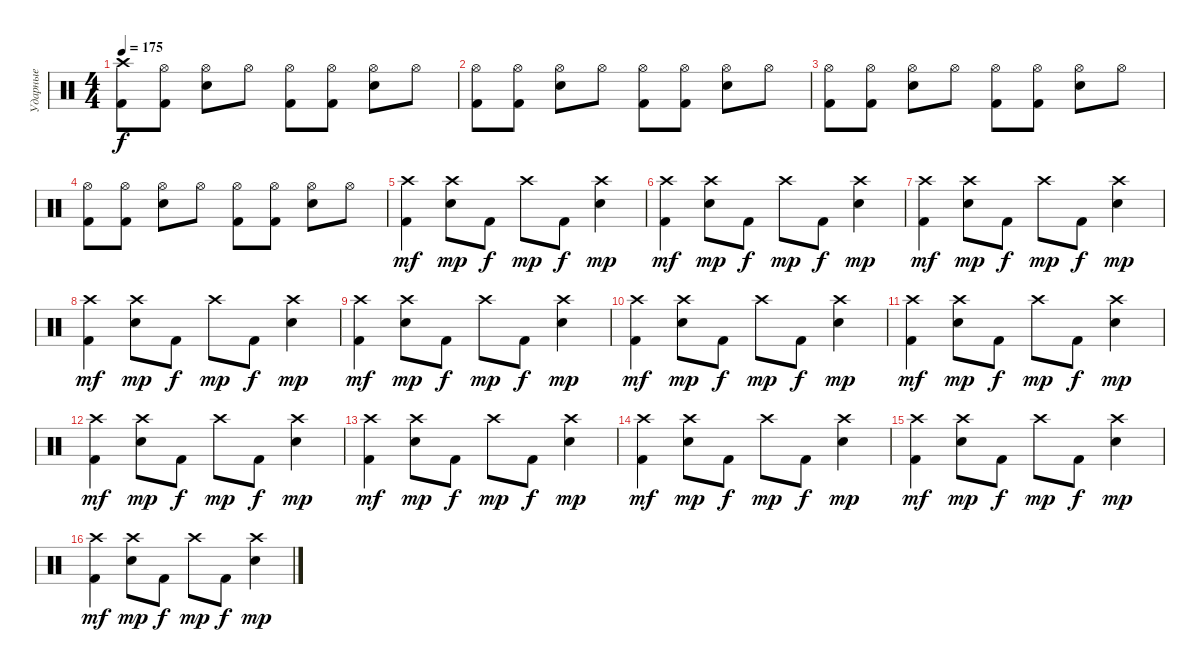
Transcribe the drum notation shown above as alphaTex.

\track ("Ударные" "Ударные") {instrument percussion}
\staff {score}
\articulation defaults
\ts (4 4)
\tempo 175
\clef neutral
\ks c
("Crash high (hit)" "Kick (hit) 2").8{dy f} ("Hi-Hat (open)" "Kick (hit) 2").8 ("Hi-Hat (open)" "Electric Snare (hit)").8 "Hi-Hat (open)".8 ("Hi-Hat (open)" "Kick (hit) 2").8 ("Hi-Hat (open)" "Kick (hit) 2").8 ("Hi-Hat (open)" "Electric Snare (hit)").8 "Hi-Hat (open)".8 |
("Hi-Hat (open)" "Kick (hit) 2").8 ("Hi-Hat (open)" "Kick (hit) 2").8 ("Hi-Hat (open)" "Electric Snare (hit)").8 "Hi-Hat (open)".8 ("Hi-Hat (open)" "Kick (hit) 2").8 ("Hi-Hat (open)" "Kick (hit) 2").8 ("Hi-Hat (open)" "Electric Snare (hit)").8 "Hi-Hat (open)".8 |
("Hi-Hat (open)" "Kick (hit) 2").8 ("Hi-Hat (open)" "Kick (hit) 2").8 ("Hi-Hat (open)" "Electric Snare (hit)").8 "Hi-Hat (open)".8 ("Hi-Hat (open)" "Kick (hit) 2").8 ("Hi-Hat (open)" "Kick (hit) 2").8 ("Hi-Hat (open)" "Electric Snare (hit)").8 "Hi-Hat (open)".8 |
("Hi-Hat (open)" "Kick (hit) 2").8 ("Hi-Hat (open)" "Kick (hit) 2").8 ("Hi-Hat (open)" "Electric Snare (hit)").8 "Hi-Hat (open)".8 ("Hi-Hat (open)" "Kick (hit) 2").8 ("Hi-Hat (open)" "Kick (hit) 2").8 ("Hi-Hat (open)" "Electric Snare (hit)").8 "Hi-Hat (open)".8 |
("Crash high (hit)" "Kick (hit) 2").4{dy mf} ("Crash high (hit)" "Electric Snare (hit)").8{dy mp} "Kick (hit) 2".8{dy f} "Crash high (hit)".8{dy mp} "Kick (hit) 2".8{dy f} ("Crash high (hit)" "Electric Snare (hit)").4{dy mp} |
("Crash high (hit)" "Kick (hit) 2").4{dy mf} ("Crash high (hit)" "Electric Snare (hit)").8{dy mp} "Kick (hit) 2".8{dy f} "Crash high (hit)".8{dy mp} "Kick (hit) 2".8{dy f} ("Crash high (hit)" "Electric Snare (hit)").4{dy mp} |
("Crash high (hit)" "Kick (hit) 2").4{dy mf} ("Crash high (hit)" "Electric Snare (hit)").8{dy mp} "Kick (hit) 2".8{dy f} "Crash high (hit)".8{dy mp} "Kick (hit) 2".8{dy f} ("Crash high (hit)" "Electric Snare (hit)").4{dy mp} |
("Crash high (hit)" "Kick (hit) 2").4{dy mf} ("Crash high (hit)" "Electric Snare (hit)").8{dy mp} "Kick (hit) 2".8{dy f} "Crash high (hit)".8{dy mp} "Kick (hit) 2".8{dy f} ("Crash high (hit)" "Electric Snare (hit)").4{dy mp} |
("Crash high (hit)" "Kick (hit) 2").4{dy mf} ("Crash high (hit)" "Electric Snare (hit)").8{dy mp} "Kick (hit) 2".8{dy f} "Crash high (hit)".8{dy mp} "Kick (hit) 2".8{dy f} ("Crash high (hit)" "Electric Snare (hit)").4{dy mp} |
("Crash high (hit)" "Kick (hit) 2").4{dy mf} ("Crash high (hit)" "Electric Snare (hit)").8{dy mp} "Kick (hit) 2".8{dy f} "Crash high (hit)".8{dy mp} "Kick (hit) 2".8{dy f} ("Crash high (hit)" "Electric Snare (hit)").4{dy mp} |
("Crash high (hit)" "Kick (hit) 2").4{dy mf} ("Crash high (hit)" "Electric Snare (hit)").8{dy mp} "Kick (hit) 2".8{dy f} "Crash high (hit)".8{dy mp} "Kick (hit) 2".8{dy f} ("Crash high (hit)" "Electric Snare (hit)").4{dy mp} |
("Crash high (hit)" "Kick (hit) 2").4{dy mf} ("Crash high (hit)" "Electric Snare (hit)").8{dy mp} "Kick (hit) 2".8{dy f} "Crash high (hit)".8{dy mp} "Kick (hit) 2".8{dy f} ("Crash high (hit)" "Electric Snare (hit)").4{dy mp} |
("Crash high (hit)" "Kick (hit) 2").4{dy mf} ("Crash high (hit)" "Electric Snare (hit)").8{dy mp} "Kick (hit) 2".8{dy f} "Crash high (hit)".8{dy mp} "Kick (hit) 2".8{dy f} ("Crash high (hit)" "Electric Snare (hit)").4{dy mp} |
("Crash high (hit)" "Kick (hit) 2").4{dy mf} ("Crash high (hit)" "Electric Snare (hit)").8{dy mp} "Kick (hit) 2".8{dy f} "Crash high (hit)".8{dy mp} "Kick (hit) 2".8{dy f} ("Crash high (hit)" "Electric Snare (hit)").4{dy mp} |
("Crash high (hit)" "Kick (hit) 2").4{dy mf} ("Crash high (hit)" "Electric Snare (hit)").8{dy mp} "Kick (hit) 2".8{dy f} "Crash high (hit)".8{dy mp} "Kick (hit) 2".8{dy f} ("Crash high (hit)" "Electric Snare (hit)").4{dy mp} |
("Crash high (hit)" "Kick (hit) 2").4{dy mf} ("Crash high (hit)" "Electric Snare (hit)").8{dy mp} "Kick (hit) 2".8{dy f} "Crash high (hit)".8{dy mp} "Kick (hit) 2".8{dy f} ("Crash high (hit)" "Electric Snare (hit)").4{dy mp}
